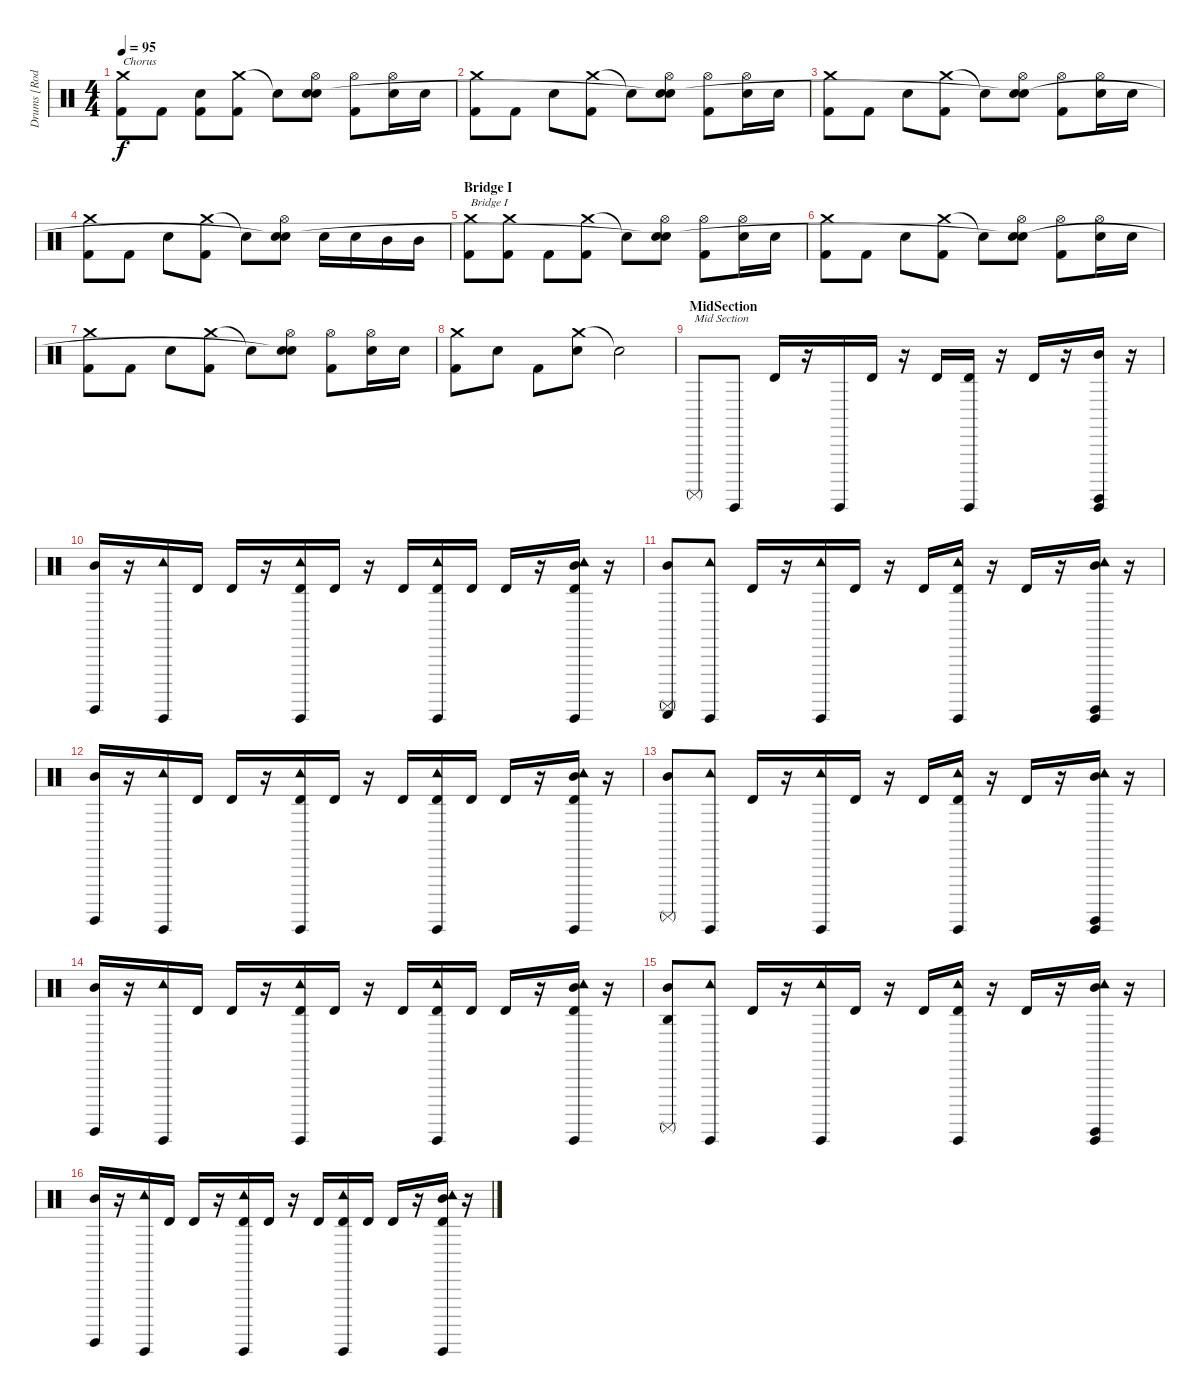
\track ("Drums [Rodney Holder]" "Drums [Rod") {instrument percussion}
\staff {score}
\articulation defaults
\ts (4 4)
\tempo 95
\clef neutral
\ks c
("Crash medium (hit)" "Kick (hit) 2").8{txt "Chorus" dy f} "Kick (hit) 2".8 ("Electric Snare (hit)" "Kick (hit) 2").8 ("Crash medium (hit)" "Kick (hit) 2").8 "Snare (hit)"{t}.8 ("Hi-Hat (open)" "Electric Snare (hit)" "Snare (hit)"{t}).8 ("Hi-Hat (open)" "Kick (hit) 2").8 ("Hi-Hat (open)" "Electric Snare (hit)").16 "Electric Snare (hit)".16 |
("Crash medium (hit)" "Kick (hit) 2").8 "Kick (hit) 2".8 "Electric Snare (hit)".8 ("Crash medium (hit)" "Kick (hit) 2").8 "Snare (hit)"{t}.8 ("Hi-Hat (open)" "Electric Snare (hit)" "Snare (hit)"{t}).8 ("Hi-Hat (open)" "Kick (hit) 2").8 ("Hi-Hat (open)" "Electric Snare (hit)").16 "Electric Snare (hit)".16 |
("Crash medium (hit)" "Kick (hit) 2").8 "Kick (hit) 2".8 "Electric Snare (hit)".8 ("Crash medium (hit)" "Kick (hit) 2").8 "Snare (hit)"{t}.8 ("Hi-Hat (open)" "Electric Snare (hit)" "Snare (hit)"{t}).8 ("Hi-Hat (open)" "Kick (hit) 2").8 ("Hi-Hat (open)" "Electric Snare (hit)").16 "Electric Snare (hit)".16 |
("Crash medium (hit)" "Kick (hit) 2").8 "Kick (hit) 2".8 "Electric Snare (hit)".8 ("Crash medium (hit)" "Kick (hit) 2").8 "Snare (hit)"{t}.8 ("Hi-Hat (open)" "Electric Snare (hit)" "Snare (hit)"{t}).8 "Electric Snare (hit)".16 "Electric Snare (hit)".16 "Mid Tom (hit)".16 "Mid Tom (hit)".16 |
\section ("" "Bridge I")
("Crash medium (hit)" "Kick (hit) 2").8{txt "Bridge I"} ("Crash medium (hit)" "Kick (hit) 2").8 "Kick (hit) 2".8 ("Crash medium (hit)" "Kick (hit) 2").8 "Snare (hit)"{t}.8 ("Hi-Hat (open)" "Electric Snare (hit)" "Snare (hit)"{t}).8 ("Hi-Hat (open)" "Kick (hit) 2").8 ("Hi-Hat (open)" "Electric Snare (hit)").16 "Electric Snare (hit)".16 |
("Crash medium (hit)" "Kick (hit) 2").8 "Kick (hit) 2".8 "Electric Snare (hit)".8 ("Crash medium (hit)" "Kick (hit) 2").8 "Snare (hit)"{t}.8 ("Hi-Hat (open)" "Electric Snare (hit)" "Snare (hit)"{t}).8 ("Hi-Hat (open)" "Kick (hit) 2").8 ("Hi-Hat (open)" "Electric Snare (hit)").16 "Electric Snare (hit)".16 |
("Crash medium (hit)" "Kick (hit) 2").8 "Kick (hit) 2".8 "Electric Snare (hit)".8 ("Crash medium (hit)" "Kick (hit) 2").8 "Snare (hit)"{t}.8 ("Hi-Hat (open)" "Electric Snare (hit)" "Snare (hit)"{t}).8 ("Hi-Hat (open)" "Kick (hit) 2").8 ("Hi-Hat (open)" "Electric Snare (hit)").16 "Electric Snare (hit)".16 |
("Crash medium (hit)" "Kick (hit) 2").8 "Electric Snare (hit)".8 "Kick (hit) 2".8 ("Crash medium (hit)" "Electric Snare (hit)").8 "Snare (hit)"{t}.2 |
\section ("" "MidSection")
"Surdo (mute)".8{txt "Mid Section"} "Guiro (hit)".8 "Timbale high (hit)".16 r.16 "Guiro (hit)".16 "Timbale high (hit)".16 r.16 "Timbale high (hit)".16 ("Guiro (hit)" "Timbale high (hit)").16 r.16 "Timbale high (hit)".16 r.16 ("Guiro (hit)" "Surdo (hit)" "Mid Tom (hit)").16 r.16 |
("Surdo (hit)" "Mid Tom (hit)").16 r.16 ("Tambourine (hit)" "Guiro (hit)").16 "Timbale high (hit)".16 "Timbale high (hit)".16 r.16 ("Tambourine (hit)" "Guiro (hit)" "Timbale high (hit)").16 "Timbale high (hit)".16 r.16 "Timbale high (hit)".16 ("Tambourine (hit)" "Guiro (hit)" "Timbale high (hit)").16 "Timbale high (hit)".16 "Timbale high (hit)".16 r.16 ("Tambourine (hit)" "Guiro (hit)" "Timbale high (hit)" "Mid Tom (hit)").16 r.16 |
("Guiro (scrap-return)" "Surdo (mute)" "Mid Tom (hit)").8 ("Tambourine (hit)" "Guiro (hit)").8 "Timbale high (hit)".16 r.16 ("Tambourine (hit)" "Guiro (hit)").16 "Timbale high (hit)".16 r.16 "Timbale high (hit)".16 ("Tambourine (hit)" "Guiro (hit)" "Timbale high (hit)").16 r.16 "Timbale high (hit)".16 r.16 ("Tambourine (hit)" "Guiro (hit)" "Surdo (hit)" "Mid Tom (hit)").16 r.16 |
("Surdo (hit)" "Mid Tom (hit)").16 r.16 ("Tambourine (hit)" "Guiro (hit)").16 "Timbale high (hit)".16 "Timbale high (hit)".16 r.16 ("Tambourine (hit)" "Guiro (hit)" "Timbale high (hit)").16 "Timbale high (hit)".16 r.16 "Timbale high (hit)".16 ("Tambourine (hit)" "Guiro (hit)" "Timbale high (hit)").16 "Timbale high (hit)".16 "Timbale high (hit)".16 r.16 ("Tambourine (hit)" "Guiro (hit)" "Timbale high (hit)" "Mid Tom (hit)").16 r.16 |
("Surdo (mute)" "Mid Tom (hit)").8 ("Tambourine (hit)" "Guiro (hit)").8 "Timbale high (hit)".16 r.16 ("Tambourine (hit)" "Guiro (hit)").16 "Timbale high (hit)".16 r.16 "Timbale high (hit)".16 ("Tambourine (hit)" "Guiro (hit)" "Timbale high (hit)").16 r.16 "Timbale high (hit)".16 r.16 ("Tambourine (hit)" "Guiro (hit)" "Surdo (hit)" "Mid Tom (hit)").16 r.16 |
("Surdo (hit)" "Mid Tom (hit)").16 r.16 ("Tambourine (hit)" "Guiro (hit)").16 "Timbale high (hit)".16 "Timbale high (hit)".16 r.16 ("Tambourine (hit)" "Guiro (hit)" "Timbale high (hit)").16 "Timbale high (hit)".16 r.16 "Timbale high (hit)".16 ("Tambourine (hit)" "Guiro (hit)" "Timbale high (hit)").16 "Timbale high (hit)".16 "Timbale high (hit)".16 r.16 ("Tambourine (hit)" "Guiro (hit)" "Timbale high (hit)" "Mid Tom (hit)").16 r.16 |
("Agogo high (hit)" "Surdo (mute)" "Mid Tom (hit)").8 ("Tambourine (hit)" "Guiro (hit)").8 "Timbale high (hit)".16 r.16 ("Tambourine (hit)" "Guiro (hit)").16 "Timbale high (hit)".16 r.16 "Timbale high (hit)".16 ("Tambourine (hit)" "Guiro (hit)" "Timbale high (hit)").16 r.16 "Timbale high (hit)".16 r.16 ("Tambourine (hit)" "Guiro (hit)" "Surdo (hit)" "Mid Tom (hit)").16 r.16 |
("Surdo (hit)" "Mid Tom (hit)").16 r.16 ("Tambourine (hit)" "Guiro (hit)").16 "Timbale high (hit)".16 "Timbale high (hit)".16 r.16 ("Tambourine (hit)" "Guiro (hit)" "Timbale high (hit)").16 "Timbale high (hit)".16 r.16 "Timbale high (hit)".16 ("Tambourine (hit)" "Guiro (hit)" "Timbale high (hit)").16 "Timbale high (hit)".16 "Timbale high (hit)".16 r.16 ("Tambourine (hit)" "Guiro (hit)" "Timbale high (hit)" "Mid Tom (hit)").16 r.16
